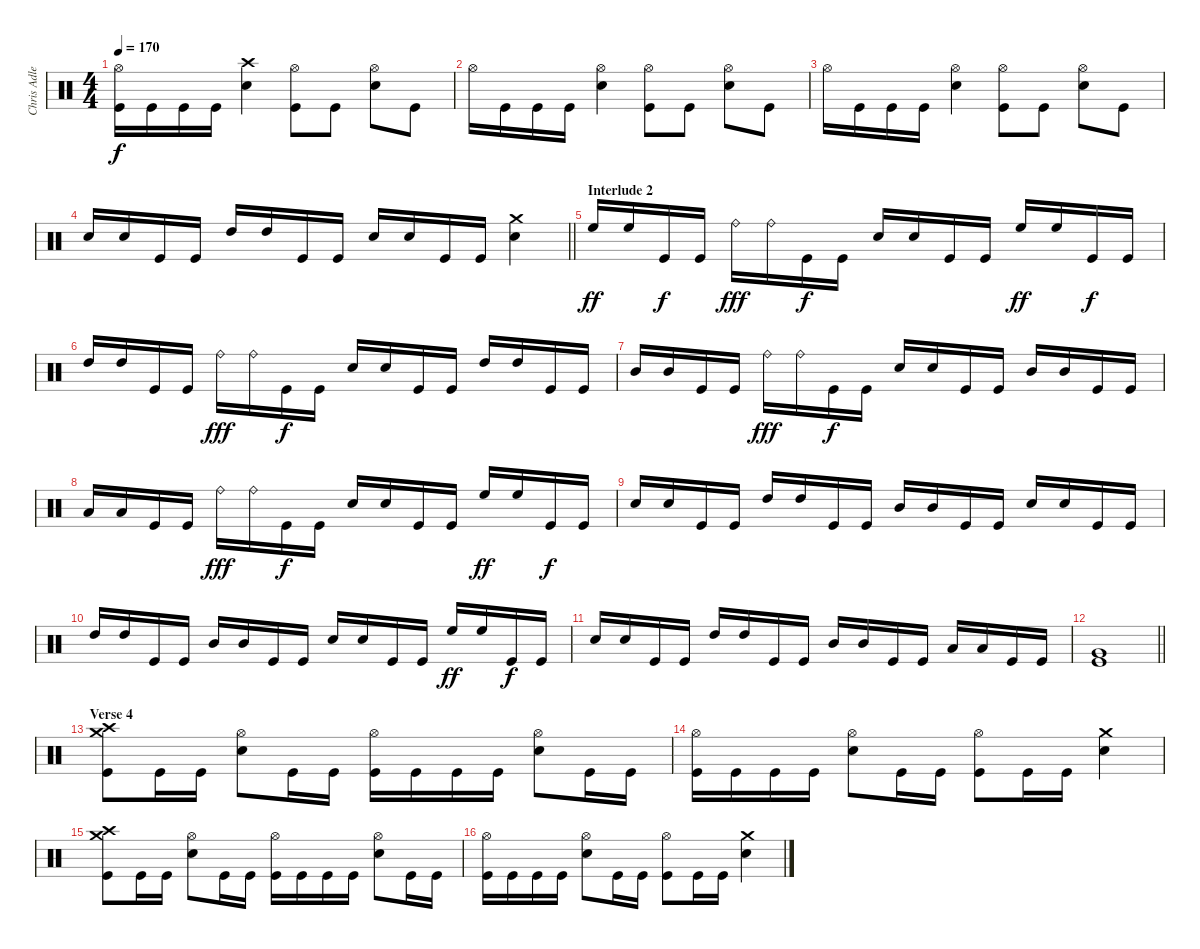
\track ("Chris Adler" "Chris Adle") {instrument percussion}
\staff {score}
\articulation defaults
\ts (4 4)
\tempo 170
\clef neutral
\ks c
("Kick (hit)" "Hi-Hat (open)").16{dy f} "Kick (hit)".16 "Kick (hit)".16 "Kick (hit)".16 ("Crash high (hit)" "Snare (hit) 2").4 ("Hi-Hat (open)" "Kick (hit)").8 "Kick (hit)".8 ("Snare (hit) 2" "Hi-Hat (open)").8 "Kick (hit)".8 |
"Hi-Hat (open)".16 "Kick (hit)".16 "Kick (hit)".16 "Kick (hit)".16 ("Hi-Hat (open)" "Snare (hit) 2").4 ("Hi-Hat (open)" "Kick (hit)").8 "Kick (hit)".8 ("Snare (hit) 2" "Hi-Hat (open)").8 "Kick (hit)".8 |
"Hi-Hat (open)".16 "Kick (hit)".16 "Kick (hit)".16 "Kick (hit)".16 ("Hi-Hat (open)" "Snare (hit) 2").4 ("Hi-Hat (open)" "Kick (hit)").8 "Kick (hit)".8 ("Snare (hit) 2" "Hi-Hat (open)").8 "Kick (hit)".8 |
\barLineRight lightlight "Snare (hit) 2".16 "Snare (hit) 2".16 "Kick (hit)".16 "Kick (hit)".16 "High Tom (hit)".16 "High Tom (hit)".16 "Kick (hit)".16 "Kick (hit)".16 "Snare (hit) 2".16 "Snare (hit) 2".16 "Kick (hit)".16 "Kick (hit)".16
("Snare (hit) 2" "Crash medium (hit)").4 |
\section ("" "Interlude 2")
"High Floor Tom (hit)".16{dy ff} "High Floor Tom (hit)".16 "Kick (hit)".16{dy f} "Kick (hit)".16 "Ride (bell)".16{dy fff} "Ride (bell)".16 "Kick (hit)".16{dy f} "Kick (hit)".16 "Snare (hit) 2".16 "Snare (hit) 2".16 "Kick (hit)".16 "Kick (hit)".16 "High Floor Tom (hit)".16{dy ff} "High Floor Tom (hit)".16 "Kick (hit)".16{dy f} "Kick (hit)".16 |
"High Tom (hit)".16 "High Tom (hit)".16 "Kick (hit)".16 "Kick (hit)".16 "Ride (bell)".16{dy fff} "Ride (bell)".16 "Kick (hit)".16{dy f} "Kick (hit)".16 "Snare (hit) 2".16 "Snare (hit) 2".16 "Kick (hit)".16 "Kick (hit)".16 "High Tom (hit)".16 "High Tom (hit)".16 "Kick (hit)".16 "Kick (hit)".16 |
"Mid Tom (hit)".16 "Mid Tom (hit)".16 "Kick (hit)".16 "Kick (hit)".16 "Ride (bell)".16{dy fff} "Ride (bell)".16 "Kick (hit)".16{dy f} "Kick (hit)".16 "Snare (hit) 2".16 "Snare (hit) 2".16 "Kick (hit)".16 "Kick (hit)".16 "Mid Tom (hit)".16 "Mid Tom (hit)".16 "Kick (hit)".16 "Kick (hit)".16 |
"Low Tom (hit)".16 "Low Tom (hit)".16 "Kick (hit)".16 "Kick (hit)".16 "Ride (bell)".16{dy fff} "Ride (bell)".16 "Kick (hit)".16{dy f} "Kick (hit)".16 "Snare (hit) 2".16 "Snare (hit) 2".16 "Kick (hit)".16 "Kick (hit)".16 "High Floor Tom (hit)".16{dy ff} "High Floor Tom (hit)".16 "Kick (hit)".16{dy f} "Kick (hit)".16 |
"Snare (hit) 2".16 "Snare (hit) 2".16 "Kick (hit)".16 "Kick (hit)".16 "High Tom (hit)".16 "High Tom (hit)".16 "Kick (hit)".16 "Kick (hit)".16 "Mid Tom (hit)".16 "Mid Tom (hit)".16 "Kick (hit)".16 "Kick (hit)".16 "Snare (hit) 2".16 "Snare (hit) 2".16 "Kick (hit)".16 "Kick (hit)".16 |
"High Tom (hit)".16 "High Tom (hit)".16 "Kick (hit)".16 "Kick (hit)".16 "Mid Tom (hit)".16 "Mid Tom (hit)".16 "Kick (hit)".16 "Kick (hit)".16 "Snare (hit) 2".16 "Snare (hit) 2".16 "Kick (hit)".16 "Kick (hit)".16 "High Floor Tom (hit)".16{dy ff} "High Floor Tom (hit)".16 "Kick (hit)".16{dy f} "Kick (hit)".16 |
"Snare (hit) 2".16 "Snare (hit) 2".16 "Kick (hit)".16 "Kick (hit)".16 "High Tom (hit)".16 "High Tom (hit)".16 "Kick (hit)".16 "Kick (hit)".16 "Mid Tom (hit)".16 "Mid Tom (hit)".16 "Kick (hit)".16 "Kick (hit)".16 "Low Tom (hit)".16 "Low Tom (hit)".16 "Kick (hit)".16 "Kick (hit)".16 |
\barLineRight lightlight
("Kick (hit)" "Very Low Tom (hit)").1 |
\section ("" "Verse 4")
("Kick (hit)" "Crash medium (hit)" "Crash high (hit)").8 "Kick (hit)".16 "Kick (hit)".16 ("Snare (hit) 2" "Hi-Hat (open)").8 "Kick (hit)".16 "Kick (hit)".16 ("Kick (hit)" "Hi-Hat (open)").16 "Kick (hit)".16 "Kick (hit)".16 "Kick (hit)".16 ("Snare (hit) 2" "Hi-Hat (open)").8 "Kick (hit)".16 "Kick (hit)".16 |
("Kick (hit)" "Hi-Hat (open)").16 "Kick (hit)".16 "Kick (hit)".16 "Kick (hit)".16 ("Snare (hit) 2" "Hi-Hat (open)").8 "Kick (hit)".16 "Kick (hit)".16 ("Kick (hit)" "Hi-Hat (open)").8 "Kick (hit)".16 "Kick (hit)".16 ("Crash medium (hit)" "Snare (hit) 2").4 |
("Kick (hit)" "Crash medium (hit)" "Crash high (hit)").8 "Kick (hit)".16 "Kick (hit)".16 ("Snare (hit) 2" "Hi-Hat (open)").8 "Kick (hit)".16 "Kick (hit)".16 ("Kick (hit)" "Hi-Hat (open)").16 "Kick (hit)".16 "Kick (hit)".16 "Kick (hit)".16 ("Snare (hit) 2" "Hi-Hat (open)").8 "Kick (hit)".16 "Kick (hit)".16 |
("Kick (hit)" "Hi-Hat (open)").16 "Kick (hit)".16 "Kick (hit)".16 "Kick (hit)".16 ("Snare (hit) 2" "Hi-Hat (open)").8 "Kick (hit)".16 "Kick (hit)".16 ("Kick (hit)" "Hi-Hat (open)").8 "Kick (hit)".16 "Kick (hit)".16 ("Crash medium (hit)" "Snare (hit) 2").4
